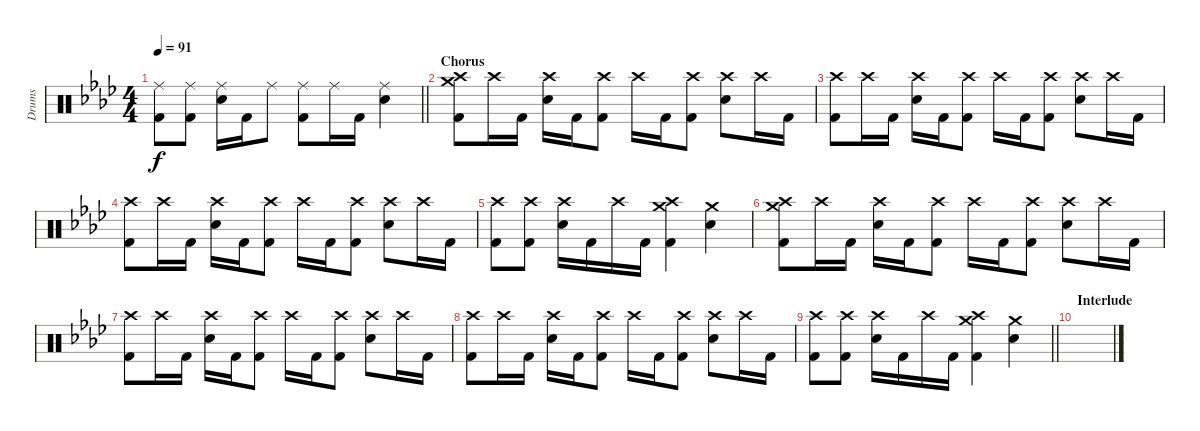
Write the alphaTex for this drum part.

\track ("Drums" "Drums") {instrument percussion}
\staff {score}
\articulation defaults
\ts (4 4)
\tempo 91
\clef neutral
\barLineRight lightlight
\ks fminor
("Ride (middle)" "Kick (hit) 2").8{dy f} ("Ride (middle)" "Kick (hit) 2").8 ("Ride (middle)" "Electric Snare (hit)").16 "Kick (hit) 2".16 "Ride (middle)".8 ("Ride (middle)" "Kick (hit) 2").8 "Ride (middle)".16 "Kick (hit) 2".16 ("Ride (middle)" "Electric Snare (hit)").4 |
\section ("" "Chorus")
("Crash medium (hit)" "Crash high (hit)" "Kick (hit) 2").8 "Crash high (hit)".16 "Kick (hit) 2".16 ("Crash high (hit)" "Electric Snare (hit)").16 "Kick (hit) 2".16 ("Crash high (hit)" "Kick (hit) 2").8 "Crash high (hit)".16 "Kick (hit) 2".16 ("Crash high (hit)" "Kick (hit) 2").8 ("Crash high (hit)" "Electric Snare (hit)").8 "Crash high (hit)".16 "Kick (hit) 2".16 |
("Crash high (hit)" "Kick (hit) 2").8 "Crash high (hit)".16 "Kick (hit) 2".16 ("Crash high (hit)" "Electric Snare (hit)").16 "Kick (hit) 2".16 ("Crash high (hit)" "Kick (hit) 2").8 "Crash high (hit)".16 "Kick (hit) 2".16 ("Crash high (hit)" "Kick (hit) 2").8 ("Crash high (hit)" "Electric Snare (hit)").8 "Crash high (hit)".16 "Kick (hit) 2".16 |
("Crash high (hit)" "Kick (hit) 2").8 "Crash high (hit)".16 "Kick (hit) 2".16 ("Crash high (hit)" "Electric Snare (hit)").16 "Kick (hit) 2".16 ("Crash high (hit)" "Kick (hit) 2").8 "Crash high (hit)".16 "Kick (hit) 2".16 ("Crash high (hit)" "Kick (hit) 2").8 ("Crash high (hit)" "Electric Snare (hit)").8 "Crash high (hit)".16 "Kick (hit) 2".16 |
("Crash high (hit)" "Kick (hit) 2").8 ("Crash high (hit)" "Kick (hit) 2").8 ("Crash high (hit)" "Electric Snare (hit)").16 "Kick (hit) 2".16 "Crash high (hit)".16 "Kick (hit) 2".16 ("Crash medium (hit)" "Crash high (hit)" "Kick (hit) 2").4 ("Crash medium (hit)" "Electric Snare (hit)").4 |
("Crash medium (hit)" "Crash high (hit)" "Kick (hit) 2").8 "Crash high (hit)".16 "Kick (hit) 2".16 ("Crash high (hit)" "Electric Snare (hit)").16 "Kick (hit) 2".16 ("Crash high (hit)" "Kick (hit) 2").8 "Crash high (hit)".16 "Kick (hit) 2".16 ("Crash high (hit)" "Kick (hit) 2").8 ("Crash high (hit)" "Electric Snare (hit)").8 "Crash high (hit)".16 "Kick (hit) 2".16 |
("Crash high (hit)" "Kick (hit) 2").8 "Crash high (hit)".16 "Kick (hit) 2".16 ("Crash high (hit)" "Electric Snare (hit)").16 "Kick (hit) 2".16 ("Crash high (hit)" "Kick (hit) 2").8 "Crash high (hit)".16 "Kick (hit) 2".16 ("Crash high (hit)" "Kick (hit) 2").8 ("Crash high (hit)" "Electric Snare (hit)").8 "Crash high (hit)".16 "Kick (hit) 2".16 |
("Crash high (hit)" "Kick (hit) 2").8 "Crash high (hit)".16 "Kick (hit) 2".16 ("Crash high (hit)" "Electric Snare (hit)").16 "Kick (hit) 2".16 ("Crash high (hit)" "Kick (hit) 2").8 "Crash high (hit)".16 "Kick (hit) 2".16 ("Crash high (hit)" "Kick (hit) 2").8 ("Crash high (hit)" "Electric Snare (hit)").8 "Crash high (hit)".16 "Kick (hit) 2".16 |
\barLineRight lightlight
("Crash high (hit)" "Kick (hit) 2").8 ("Crash high (hit)" "Kick (hit) 2").8 ("Crash high (hit)" "Electric Snare (hit)").16 "Kick (hit) 2".16 "Crash high (hit)".16 "Kick (hit) 2".16 ("Crash medium (hit)" "Crash high (hit)" "Kick (hit) 2").4 ("Crash medium (hit)" "Electric Snare (hit)").4 |
\section ("" "Interlude")
